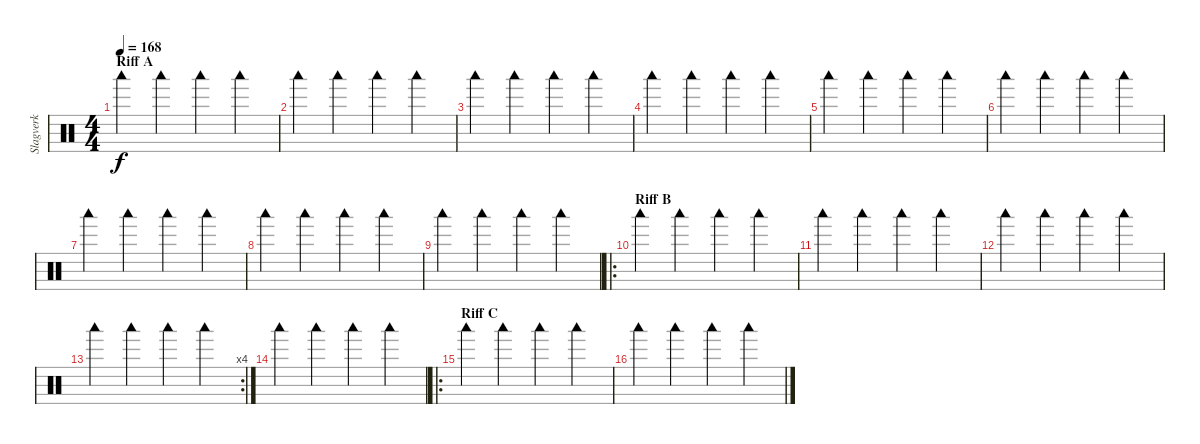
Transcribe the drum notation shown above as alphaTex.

\track ("Slagverk" "Slagverk") {instrument percussion}
\staff {score}
\articulation defaults
\ts (4 4)
\section ("" "Riff A")
\tempo 168
\clef neutral
\ks c "Woodblock low (hit)".4{dy f} "Woodblock low (hit)".4 "Woodblock low (hit)".4 "Woodblock low (hit)".4
|
"Woodblock low (hit)".4 "Woodblock low (hit)".4 "Woodblock low (hit)".4 "Woodblock low (hit)".4 |
"Woodblock low (hit)".4 "Woodblock low (hit)".4 "Woodblock low (hit)".4 "Woodblock low (hit)".4 |
"Woodblock low (hit)".4 "Woodblock low (hit)".4 "Woodblock low (hit)".4 "Woodblock low (hit)".4 |
"Woodblock low (hit)".4 "Woodblock low (hit)".4 "Woodblock low (hit)".4 "Woodblock low (hit)".4 |
"Woodblock low (hit)".4 "Woodblock low (hit)".4 "Woodblock low (hit)".4 "Woodblock low (hit)".4 |
"Woodblock low (hit)".4 "Woodblock low (hit)".4 "Woodblock low (hit)".4 "Woodblock low (hit)".4 |
"Woodblock low (hit)".4 "Woodblock low (hit)".4 "Woodblock low (hit)".4 "Woodblock low (hit)".4 |
"Woodblock low (hit)".4 "Woodblock low (hit)".4 "Woodblock low (hit)".4 "Woodblock low (hit)".4 |
\ro
\section ("" "Riff B")
"Woodblock low (hit)".4 "Woodblock low (hit)".4 "Woodblock low (hit)".4 "Woodblock low (hit)".4 |
"Woodblock low (hit)".4 "Woodblock low (hit)".4 "Woodblock low (hit)".4 "Woodblock low (hit)".4 |
"Woodblock low (hit)".4 "Woodblock low (hit)".4 "Woodblock low (hit)".4 "Woodblock low (hit)".4 |
\rc 4 "Woodblock low (hit)".4 "Woodblock low (hit)".4 "Woodblock low (hit)".4 "Woodblock low (hit)".4
|
"Woodblock low (hit)".4 "Woodblock low (hit)".4 "Woodblock low (hit)".4 "Woodblock low (hit)".4 |
\ro
\section ("" "Riff C")
"Woodblock low (hit)".4 "Woodblock low (hit)".4 "Woodblock low (hit)".4 "Woodblock low (hit)".4 |
"Woodblock low (hit)".4 "Woodblock low (hit)".4 "Woodblock low (hit)".4 "Woodblock low (hit)".4
